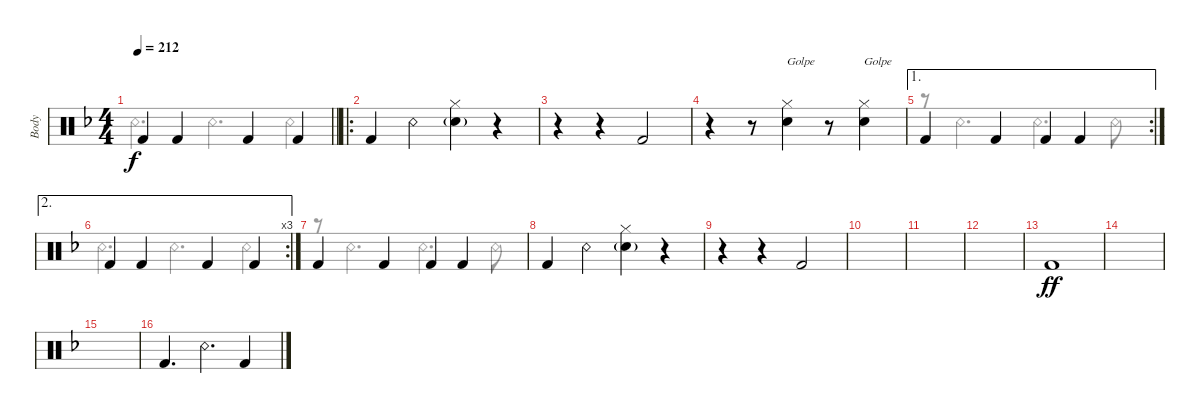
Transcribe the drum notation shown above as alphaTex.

\defaultSystemsLayout 2
\bracketExtendMode groupsimilarinstruments
\otherSystemsTrackNameOrientation horizontal
\track ("Body" "Body") {instrument percussion}
\staff {score}
\articulation defaults
\voice
\ts (4 4)
\scale
1.04754
\tempo 212
\accidentals auto
\clef neutral
\ottava regular
\simile none
\scale
0.333333
\barLineRight lightlight
\ks dminor "Kick (hit) 2"{acc forcenatural}.4{dy f beam Up} "Kick (hit) 2"{acc forcenatural}.4{beam Up} "Kick (hit) 2"{acc forcenatural}.4{beam Up} "Kick (hit) 2"{acc forcenatural}.4{beam Up}
|
\ro
\scale
0.952462
\scale
0.333333 "Kick (hit) 2"{acc forcenatural}.4{beam Up} "Snare (rim shot)"{acc forcenatural}.4{beam Down} ("Snare (hit) 2"{g acc forcenatural} "Hi-Hat (closed)"{acc forcenatural}).4{beam Down} r.4{beam Down} |
\scale
1.04804
\scale
0.333333 r.4{beam Down} r.4{beam Down} "Kick (hit) 2"{acc forcenatural}.2{beam Up} |
\scale
0.951961
\scale
0.333333 r.4{beam Down} r.8{beam Down} ("Snare (hit) 2"{acc forcenatural} "Hi-Hat (closed)"{acc forcenatural}).4{txt "Golpe" beam Down} r.8{beam Down} ("Hi-Hat (closed)"{acc forcenatural} "Snare (hit) 2"{acc forcenatural}).4{txt "Golpe" beam Down} |
\ae 1
\rc 2
\scale
1.04804
\scale
0.333333 "Kick (hit) 2"{acc forcenatural}.4{beam Up} "Kick (hit) 2"{acc forcenatural}.4{beam Up} "Kick (hit) 2"{acc forcenatural}.4{beam Up} "Kick (hit) 2"{acc forcenatural}.4{beam Up} |
\ae 2
\rc 3
\scale
0.951961
\scale
0.333333 "Kick (hit) 2"{acc forcenatural}.4{beam Up} "Kick (hit) 2"{acc forcenatural}.4{beam Up} "Kick (hit) 2"{acc forcenatural}.4{beam Up} "Kick (hit) 2"{acc forcenatural}.4{beam Up} |
\scale
1.04804
\scale
0.333333 "Kick (hit) 2"{acc forcenatural}.4{beam Up} "Kick (hit) 2"{acc forcenatural}.4{beam Up} "Kick (hit) 2"{acc forcenatural}.4{beam Up} "Kick (hit) 2"{acc forcenatural}.4{beam Up} |
\scale
0.951961
\scale
0.333333 "Kick (hit) 2"{acc forcenatural}.4{beam Up} "Snare (rim shot)"{acc forcenatural}.4{beam Down} ("Snare (hit) 2"{g acc forcenatural} "Hi-Hat (closed)"{acc forcenatural}).4{beam Down} r.4{beam Down} |
\scale
1.04804
\scale
0.333333 r.4{beam Down} r.4{beam Down} "Kick (hit) 2"{acc forcenatural}.2{beam Up} |
\scale
0.951961
\scale
0.333333 |
\scale
1.04804
\scale
0.333333 |
\scale
0.951961
\scale
0.333333 |
\scale
1.05422
\scale
0.333333 "Kick (hit) 2"{acc forcenatural}.1{dy ff beam Up} |
\scale
0.945776
\scale
0.333333 |
\scale
1.04804
\scale
0.333333 |
\scale
0.951961
\scale
0.333333 "Kick (hit) 2"{acc forcenatural}.4{d beam Up} "Snare (rim shot)"{acc forcenatural}.4{d beam Down} "Kick (hit) 2"{acc forcenatural}.4{beam Up}
\voice
\clef neutral
\ottava regular
\simile none
\scale
0.333333
\barLineRight lightlight
\ks dminor "Snare (rim shot)"{acc forcenatural}.4{d dy f beam Down} "Snare (rim shot)"{acc forcenatural}.4{d beam Down} "Snare (rim shot)"{acc forcenatural}.4{beam Down}
|
\scale
0.333333 |
\scale
0.333333 |
\scale
0.333333 |
\scale
0.333333 r.8{beam Down} "Snare (rim shot)"{acc forcenatural}.4{d beam Down} "Snare (rim shot)"{acc forcenatural}.4{d beam Down} "Snare (rim shot)"{acc forcenatural}.8{beam Down} |
\scale
0.333333 "Snare (rim shot)"{acc forcenatural}.4{d beam Down} "Snare (rim shot)"{acc forcenatural}.4{d beam Down} "Snare (rim shot)"{acc forcenatural}.4{beam Down} |
\scale
0.333333 r.8{beam Down} "Snare (rim shot)"{acc forcenatural}.4{d beam Down} "Snare (rim shot)"{acc forcenatural}.4{d beam Down} "Snare (rim shot)"{acc forcenatural}.8{beam Down} |
\scale
0.333333 |
\scale
0.333333 |
\scale
0.333333 |
\scale
0.333333 |
\scale
0.333333 |
\scale
0.333333 |
\scale
0.333333 |
\scale
0.333333 |
\scale
0.333333
